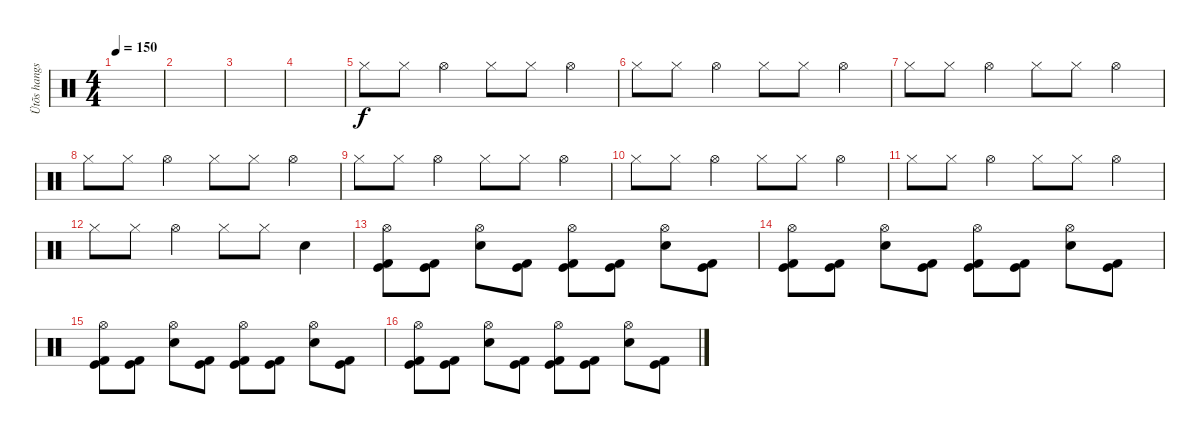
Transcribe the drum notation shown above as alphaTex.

\track ("Ütõs hangszer" "Ütõs hangs") {instrument percussion}
\staff {score}
\articulation defaults
\ts (4 4)
\tempo 150
\clef neutral
\ks c
|
|
|
|
"Hi-Hat (closed)".8 "Hi-Hat (closed)".8 "Hi-Hat (open)".4 "Hi-Hat (closed)".8 "Hi-Hat (closed)".8 "Hi-Hat (open)".4 |
"Hi-Hat (closed)".8 "Hi-Hat (closed)".8 "Hi-Hat (open)".4 "Hi-Hat (closed)".8 "Hi-Hat (closed)".8 "Hi-Hat (open)".4 |
"Hi-Hat (closed)".8 "Hi-Hat (closed)".8 "Hi-Hat (open)".4 "Hi-Hat (closed)".8 "Hi-Hat (closed)".8 "Hi-Hat (open)".4 |
"Hi-Hat (closed)".8 "Hi-Hat (closed)".8 "Hi-Hat (open)".4 "Hi-Hat (closed)".8 "Hi-Hat (closed)".8 "Hi-Hat (open)".4 |
"Hi-Hat (closed)".8 "Hi-Hat (closed)".8 "Hi-Hat (open)".4 "Hi-Hat (closed)".8 "Hi-Hat (closed)".8 "Hi-Hat (open)".4 |
"Hi-Hat (closed)".8 "Hi-Hat (closed)".8 "Hi-Hat (open)".4 "Hi-Hat (closed)".8 "Hi-Hat (closed)".8 "Hi-Hat (open)".4 |
"Hi-Hat (closed)".8 "Hi-Hat (closed)".8 "Hi-Hat (open)".4 "Hi-Hat (closed)".8 "Hi-Hat (closed)".8 "Hi-Hat (open)".4 |
"Hi-Hat (closed)".8 "Hi-Hat (closed)".8 "Hi-Hat (open)".4 "Hi-Hat (closed)".8 "Hi-Hat (closed)".8 "Electric Snare (hit)".4 |
("Hi-Hat (open)" "Kick (hit)" "Kick (hit) 2").8 ("Kick (hit)" "Kick (hit) 2").8 ("Hi-Hat (open)" "Electric Snare (hit)").8 ("Kick (hit)" "Kick (hit) 2").8 ("Hi-Hat (open)" "Kick (hit)" "Kick (hit) 2").8 ("Kick (hit)" "Kick (hit) 2").8 ("Hi-Hat (open)" "Electric Snare (hit)").8 ("Kick (hit)" "Kick (hit) 2").8 |
("Hi-Hat (open)" "Kick (hit)" "Kick (hit) 2").8 ("Kick (hit)" "Kick (hit) 2").8 ("Hi-Hat (open)" "Electric Snare (hit)").8 ("Kick (hit)" "Kick (hit) 2").8 ("Hi-Hat (open)" "Kick (hit)" "Kick (hit) 2").8 ("Kick (hit)" "Kick (hit) 2").8 ("Hi-Hat (open)" "Electric Snare (hit)").8 ("Kick (hit)" "Kick (hit) 2").8 |
("Hi-Hat (open)" "Kick (hit)" "Kick (hit) 2").8 ("Kick (hit)" "Kick (hit) 2").8 ("Hi-Hat (open)" "Electric Snare (hit)").8 ("Kick (hit)" "Kick (hit) 2").8 ("Hi-Hat (open)" "Kick (hit)" "Kick (hit) 2").8 ("Kick (hit)" "Kick (hit) 2").8 ("Hi-Hat (open)" "Electric Snare (hit)").8 ("Kick (hit)" "Kick (hit) 2").8 |
("Hi-Hat (open)" "Kick (hit)" "Kick (hit) 2").8 ("Kick (hit)" "Kick (hit) 2").8 ("Hi-Hat (open)" "Electric Snare (hit)").8 ("Kick (hit)" "Kick (hit) 2").8 ("Hi-Hat (open)" "Kick (hit)" "Kick (hit) 2").8 ("Kick (hit)" "Kick (hit) 2").8 ("Hi-Hat (open)" "Electric Snare (hit)").8 ("Kick (hit)" "Kick (hit) 2").8
